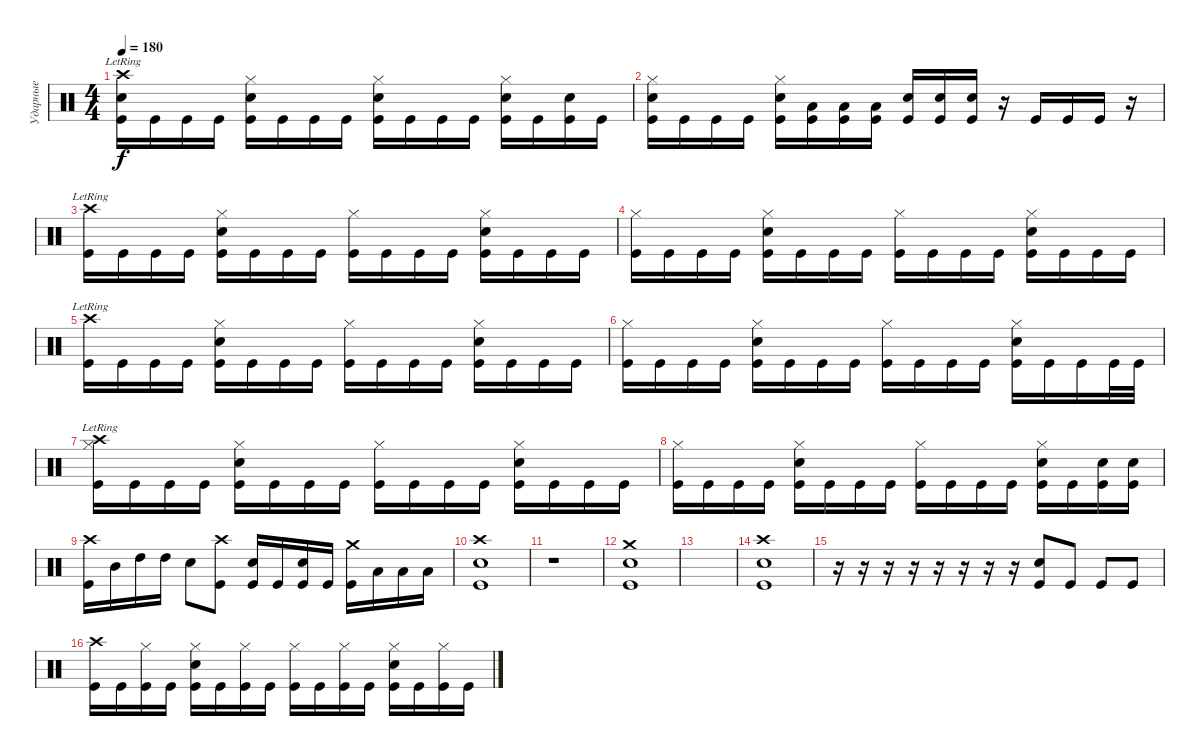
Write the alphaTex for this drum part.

\track ("Ударные" "Ударные") {instrument percussion}
\staff {score}
\articulation defaults
\ts (4 4)
\tempo 180
\clef neutral
\ks c
("Crash high (hit)"{lr} "Electric Snare (hit)" "Kick (hit)").16{dy f} "Kick (hit)".16 "Kick (hit)".16 "Kick (hit)".16 ("Hi-Hat (closed)" "Electric Snare (hit)" "Kick (hit)").16 "Kick (hit)".16 "Kick (hit)".16 "Kick (hit)".16 ("Hi-Hat (closed)" "Electric Snare (hit)" "Kick (hit)").16 "Kick (hit)".16 "Kick (hit)".16 "Kick (hit)".16 ("Hi-Hat (closed)" "Electric Snare (hit)" "Kick (hit)").16 "Kick (hit)".16 ("Electric Snare (hit)" "Kick (hit)").16 "Kick (hit)".16 |
("Hi-Hat (closed)" "Electric Snare (hit)" "Kick (hit)").16 "Kick (hit)".16 "Kick (hit)".16 "Kick (hit)".16 ("Hi-Hat (closed)" "Electric Snare (hit)" "Kick (hit)").16 ("Low Tom (hit)" "Kick (hit)").16 ("Low Tom (hit)" "Kick (hit)").16 ("Low Tom (hit)" "Kick (hit)").16 ("Electric Snare (hit)" "Kick (hit)").16 ("Electric Snare (hit)" "Kick (hit)").16 ("Electric Snare (hit)" "Kick (hit)").16 r.16 "Kick (hit)".16 "Kick (hit)".16 "Kick (hit)".16 r.16 |
("Crash high (hit)"{lr} "Kick (hit)").16 "Kick (hit)".16 "Kick (hit)".16 "Kick (hit)".16 ("Hi-Hat (closed)" "Electric Snare (hit)" "Kick (hit)").16 "Kick (hit)".16 "Kick (hit)".16 "Kick (hit)".16 ("Hi-Hat (closed)" "Kick (hit)").16 "Kick (hit)".16 "Kick (hit)".16 "Kick (hit)".16 ("Hi-Hat (closed)" "Electric Snare (hit)" "Kick (hit)").16 "Kick (hit)".16 "Kick (hit)".16 "Kick (hit)".16 |
("Hi-Hat (closed)" "Kick (hit)").16 "Kick (hit)".16 "Kick (hit)".16 "Kick (hit)".16 ("Hi-Hat (closed)" "Electric Snare (hit)" "Kick (hit)").16 "Kick (hit)".16 "Kick (hit)".16 "Kick (hit)".16 ("Hi-Hat (closed)" "Kick (hit)").16 "Kick (hit)".16 "Kick (hit)".16 "Kick (hit)".16 ("Hi-Hat (closed)" "Electric Snare (hit)" "Kick (hit)").16 "Kick (hit)".16 "Kick (hit)".16 "Kick (hit)".16 |
("Crash high (hit)"{lr} "Kick (hit)").16 "Kick (hit)".16 "Kick (hit)".16 "Kick (hit)".16 ("Hi-Hat (closed)" "Electric Snare (hit)" "Kick (hit)").16 "Kick (hit)".16 "Kick (hit)".16 "Kick (hit)".16 ("Hi-Hat (closed)" "Kick (hit)").16 "Kick (hit)".16 "Kick (hit)".16 "Kick (hit)".16 ("Hi-Hat (closed)" "Electric Snare (hit)" "Kick (hit)").16 "Kick (hit)".16 "Kick (hit)".16 "Kick (hit)".16 |
("Hi-Hat (closed)" "Kick (hit)").16 "Kick (hit)".16 "Kick (hit)".16 "Kick (hit)".16 ("Hi-Hat (closed)" "Electric Snare (hit)" "Kick (hit)").16 "Kick (hit)".16 "Kick (hit)".16 "Kick (hit)".16 ("Hi-Hat (closed)" "Kick (hit)").16 "Kick (hit)".16 "Kick (hit)".16 "Kick (hit)".16 ("Hi-Hat (closed)" "Electric Snare (hit)" "Kick (hit)").16 "Kick (hit)".16 "Kick (hit)".16 "Kick (hit)".32 "Kick (hit)".32 |
("Crash high (hit)"{lr} "Hi-Hat (closed)" "Kick (hit)").16 "Kick (hit)".16 "Kick (hit)".16 "Kick (hit)".16 ("Hi-Hat (closed)" "Electric Snare (hit)" "Kick (hit)").16 "Kick (hit)".16 "Kick (hit)".16 "Kick (hit)".16 ("Hi-Hat (closed)" "Kick (hit)").16 "Kick (hit)".16 "Kick (hit)".16 "Kick (hit)".16 ("Hi-Hat (closed)" "Electric Snare (hit)" "Kick (hit)").16 "Kick (hit)".16 "Kick (hit)".16 "Kick (hit)".16 |
("Hi-Hat (closed)" "Kick (hit)").16 "Kick (hit)".16 "Kick (hit)".16 "Kick (hit)".16 ("Hi-Hat (closed)" "Electric Snare (hit)" "Kick (hit)").16 "Kick (hit)".16 "Kick (hit)".16 "Kick (hit)".16 ("Hi-Hat (closed)" "Kick (hit)").16 "Kick (hit)".16 "Kick (hit)".16 "Kick (hit)".16 ("Hi-Hat (closed)" "Electric Snare (hit)" "Kick (hit)").16 "Kick (hit)".16 ("Electric Snare (hit)" "Kick (hit)").16 ("Electric Snare (hit)" "Kick (hit)").16 |
("Crash high (hit)" "Kick (hit)").16 "Mid Tom (hit)".16 "High Tom (hit)".16 "High Tom (hit)".16 "Electric Snare (hit)".8 ("Crash high (hit)" "Kick (hit)").8 ("Electric Snare (hit)" "Kick (hit)").16 "Kick (hit)".16 ("Electric Snare (hit)" "Kick (hit)").16 "Kick (hit)".16 ("Crash medium (hit)" "Kick (hit)").16 "Low Tom (hit)".16 "Low Tom (hit)".16 "Low Tom (hit)".16 |
("Crash high (hit)" "Electric Snare (hit)" "Kick (hit)").1 |
r.1 |
("Crash medium (hit)" "Electric Snare (hit)" "Kick (hit)").1 |
|
("Crash high (hit)" "Electric Snare (hit)" "Kick (hit)").1 |
r.16 r.16 r.16 r.16 r.16 r.16 r.16 r.16 ("Electric Snare (hit)" "Kick (hit)").8 "Kick (hit)".8 "Kick (hit)".8 "Kick (hit)".8 |
("Crash high (hit)" "Kick (hit)").16 "Kick (hit)".16 ("Hi-Hat (closed)" "Kick (hit)").16 "Kick (hit)".16 ("Hi-Hat (closed)" "Electric Snare (hit)" "Kick (hit)").16 "Kick (hit)".16 ("Hi-Hat (closed)" "Kick (hit)").16 "Kick (hit)".16 ("Hi-Hat (closed)" "Kick (hit)").16 "Kick (hit)".16 ("Hi-Hat (closed)" "Kick (hit)").16 "Kick (hit)".16 ("Hi-Hat (closed)" "Electric Snare (hit)" "Kick (hit)").16 "Kick (hit)".16 ("Hi-Hat (closed)" "Kick (hit)").16 "Kick (hit)".16
